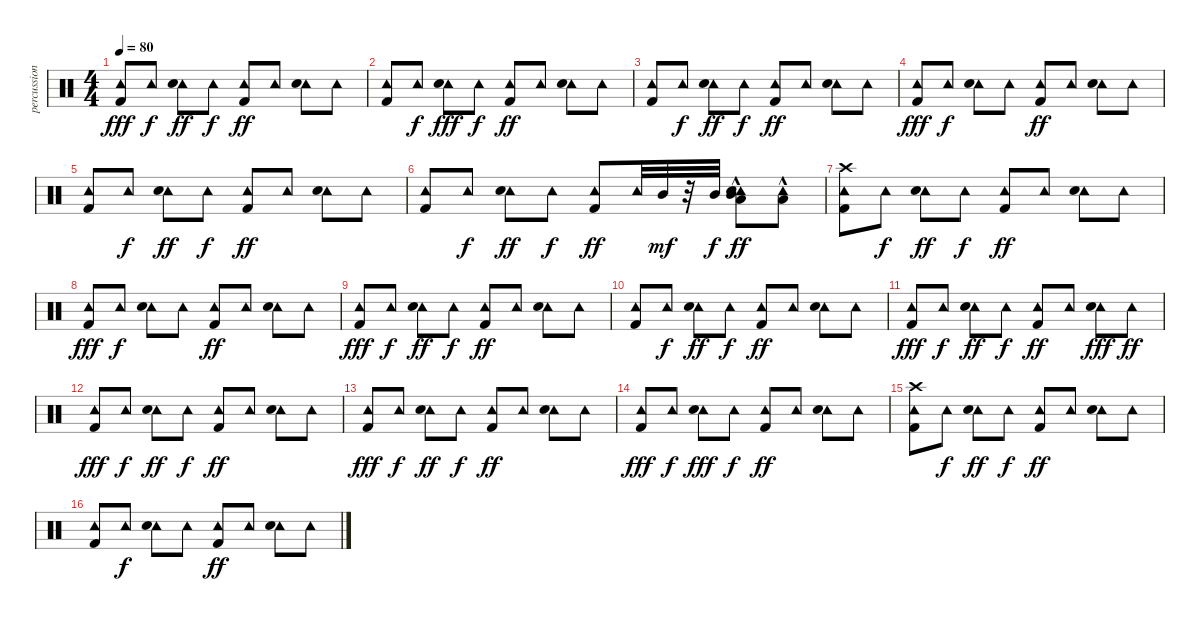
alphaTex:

\track ("percussion" "percussion") {instrument percussion}
\staff {score}
\articulation defaults
\ts (4 4)
\tempo 80
\clef neutral
\ks c
("Kick (hit) 2" "Tambourine (hit)").8{dy fff} "Tambourine (hit)".8{dy f} ("Tambourine (hit)" "Electric Snare (hit)").8{dy ff} "Tambourine (hit)".8{dy f} ("Kick (hit) 2" "Tambourine (hit)").8{dy ff} "Tambourine (hit)".8 ("Tambourine (hit)" "Electric Snare (hit)").8 "Tambourine (hit)".8 |
("Kick (hit) 2" "Tambourine (hit)").8 "Tambourine (hit)".8{dy f} ("Tambourine (hit)" "Electric Snare (hit)").8{dy fff} "Tambourine (hit)".8{dy f} ("Kick (hit) 2" "Tambourine (hit)").8{dy ff} "Tambourine (hit)".8 ("Tambourine (hit)" "Electric Snare (hit)").8 "Tambourine (hit)".8 |
("Kick (hit) 2" "Tambourine (hit)").8 "Tambourine (hit)".8{dy f} ("Tambourine (hit)" "Electric Snare (hit)").8{dy ff} "Tambourine (hit)".8{dy f} ("Kick (hit) 2" "Tambourine (hit)").8{dy ff} "Tambourine (hit)".8 ("Tambourine (hit)" "Electric Snare (hit)").8 "Tambourine (hit)".8 |
("Kick (hit) 2" "Tambourine (hit)").8{dy fff} "Tambourine (hit)".8{dy f} ("Tambourine (hit)" "Electric Snare (hit)").8 "Tambourine (hit)".8 ("Kick (hit) 2" "Tambourine (hit)").8{dy ff} "Tambourine (hit)".8 ("Tambourine (hit)" "Electric Snare (hit)").8 "Tambourine (hit)".8 |
("Kick (hit) 2" "Tambourine (hit)").8 "Tambourine (hit)".8{dy f} ("Tambourine (hit)" "Electric Snare (hit)").8{dy ff} "Tambourine (hit)".8{dy f} ("Kick (hit) 2" "Tambourine (hit)").8{dy ff} "Tambourine (hit)".8 ("Tambourine (hit)" "Electric Snare (hit)").8 "Tambourine (hit)".8 |
("Kick (hit) 2" "Tambourine (hit)").8 "Tambourine (hit)".8{dy f} ("Tambourine (hit)" "Electric Snare (hit)").8{dy ff} "Tambourine (hit)".8{dy f} ("Kick (hit) 2" "Tambourine (hit)").8{dy ff} "Tambourine (hit)".32 "Mid Tom (hit)".32{dy mf} r.32 "Mid Tom (hit)".32{dy f} ("Mid Tom (hit)" "Low Tom (hit)"{hac} "Tambourine (hit)" "Electric Snare (hit)").8{dy ff} ("Low Tom (hit)"{hac} "Tambourine (hit)").8 |
("Kick (hit) 2" "Crash high (hit)" "Tambourine (hit)").8 "Tambourine (hit)".8{dy f} ("Tambourine (hit)" "Electric Snare (hit)").8{dy ff} "Tambourine (hit)".8{dy f} ("Kick (hit) 2" "Tambourine (hit)").8{dy ff} "Tambourine (hit)".8 ("Tambourine (hit)" "Electric Snare (hit)").8 "Tambourine (hit)".8 |
("Kick (hit) 2" "Tambourine (hit)").8{dy fff} "Tambourine (hit)".8{dy f} ("Tambourine (hit)" "Electric Snare (hit)").8 "Tambourine (hit)".8 ("Kick (hit) 2" "Tambourine (hit)").8{dy ff} "Tambourine (hit)".8 ("Tambourine (hit)" "Electric Snare (hit)").8 "Tambourine (hit)".8 |
("Kick (hit) 2" "Tambourine (hit)").8{dy fff} "Tambourine (hit)".8{dy f} ("Tambourine (hit)" "Electric Snare (hit)").8{dy ff} "Tambourine (hit)".8{dy f} ("Kick (hit) 2" "Tambourine (hit)").8{dy ff} "Tambourine (hit)".8 ("Tambourine (hit)" "Electric Snare (hit)").8 "Tambourine (hit)".8 |
("Kick (hit) 2" "Tambourine (hit)").8 "Tambourine (hit)".8{dy f} ("Tambourine (hit)" "Electric Snare (hit)").8{dy ff} "Tambourine (hit)".8{dy f} ("Kick (hit) 2" "Tambourine (hit)").8{dy ff} "Tambourine (hit)".8 ("Tambourine (hit)" "Electric Snare (hit)").8 "Tambourine (hit)".8 |
("Kick (hit) 2" "Tambourine (hit)").8{dy fff} "Tambourine (hit)".8{dy f} ("Tambourine (hit)" "Electric Snare (hit)").8{dy ff} "Tambourine (hit)".8{dy f} ("Kick (hit) 2" "Tambourine (hit)").8{dy ff} "Tambourine (hit)".8 ("Tambourine (hit)" "Electric Snare (hit)").8{dy fff} "Tambourine (hit)".8{dy ff} |
("Kick (hit) 2" "Tambourine (hit)").8{dy fff} "Tambourine (hit)".8{dy f} ("Tambourine (hit)" "Electric Snare (hit)").8{dy ff} "Tambourine (hit)".8{dy f} ("Kick (hit) 2" "Tambourine (hit)").8{dy ff} "Tambourine (hit)".8 ("Tambourine (hit)" "Electric Snare (hit)").8 "Tambourine (hit)".8 |
("Kick (hit) 2" "Tambourine (hit)").8{dy fff} "Tambourine (hit)".8{dy f} ("Tambourine (hit)" "Electric Snare (hit)").8{dy ff} "Tambourine (hit)".8{dy f} ("Kick (hit) 2" "Tambourine (hit)").8{dy ff} "Tambourine (hit)".8 ("Tambourine (hit)" "Electric Snare (hit)").8 "Tambourine (hit)".8 |
("Kick (hit) 2" "Tambourine (hit)").8{dy fff} "Tambourine (hit)".8{dy f} ("Tambourine (hit)" "Electric Snare (hit)").8{dy fff} "Tambourine (hit)".8{dy f} ("Kick (hit) 2" "Tambourine (hit)").8{dy ff} "Tambourine (hit)".8 ("Tambourine (hit)" "Electric Snare (hit)").8 "Tambourine (hit)".8 |
("Kick (hit) 2" "Crash high (hit)" "Tambourine (hit)").8 "Tambourine (hit)".8{dy f} ("Tambourine (hit)" "Electric Snare (hit)").8{dy ff} "Tambourine (hit)".8{dy f} ("Kick (hit) 2" "Tambourine (hit)").8{dy ff} "Tambourine (hit)".8 ("Tambourine (hit)" "Electric Snare (hit)").8 "Tambourine (hit)".8 |
("Kick (hit) 2" "Tambourine (hit)").8 "Tambourine (hit)".8{dy f} ("Tambourine (hit)" "Electric Snare (hit)").8 "Tambourine (hit)".8 ("Kick (hit) 2" "Tambourine (hit)").8{dy ff} "Tambourine (hit)".8 ("Tambourine (hit)" "Electric Snare (hit)").8 "Tambourine (hit)".8
